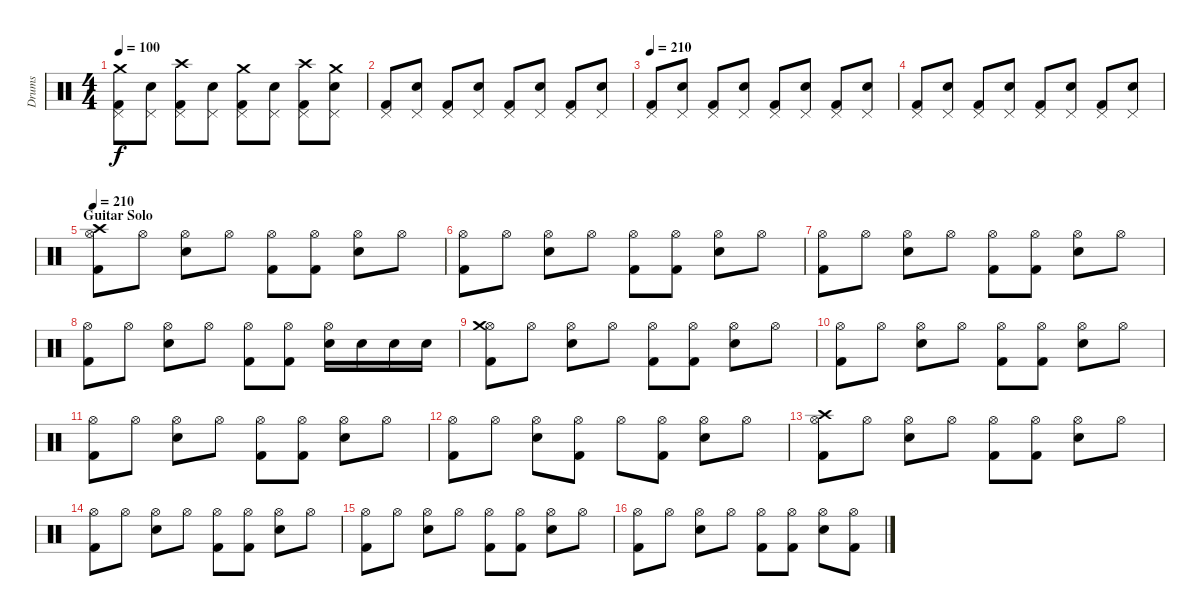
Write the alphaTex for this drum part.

\track ("Drums" "Drums") {instrument percussion}
\staff {score}
\articulation defaults
\ts (4 4)
\tempo 100
\clef neutral
\ks c
("Crash medium (hit)" "Pedal Hi-Hat (hit)" "Kick (hit) 2").8{dy f} ("Pedal Hi-Hat (hit)" "Electric Snare (hit)").8 ("Crash high (hit)" "Pedal Hi-Hat (hit)" "Kick (hit) 2").8 ("Pedal Hi-Hat (hit)" "Electric Snare (hit)").8 ("Crash medium (hit)" "Pedal Hi-Hat (hit)" "Kick (hit) 2").8 ("Pedal Hi-Hat (hit)" "Electric Snare (hit)").8 ("Crash high (hit)" "Pedal Hi-Hat (hit)" "Kick (hit) 2").8 ("Crash medium (hit)" "Pedal Hi-Hat (hit)" "Electric Snare (hit)").8 |
("Pedal Hi-Hat (hit)" "Kick (hit) 2").8 ("Pedal Hi-Hat (hit)" "Electric Snare (hit)").8 ("Pedal Hi-Hat (hit)" "Kick (hit) 2").8 ("Pedal Hi-Hat (hit)" "Electric Snare (hit)").8 ("Pedal Hi-Hat (hit)" "Kick (hit) 2").8 ("Pedal Hi-Hat (hit)" "Electric Snare (hit)").8 ("Pedal Hi-Hat (hit)" "Kick (hit) 2").8 ("Pedal Hi-Hat (hit)" "Electric Snare (hit)").8 |
\tempo 210
("Pedal Hi-Hat (hit)" "Kick (hit) 2").8 ("Pedal Hi-Hat (hit)" "Electric Snare (hit)").8 ("Pedal Hi-Hat (hit)" "Kick (hit) 2").8 ("Pedal Hi-Hat (hit)" "Electric Snare (hit)").8 ("Pedal Hi-Hat (hit)" "Kick (hit) 2").8 ("Pedal Hi-Hat (hit)" "Electric Snare (hit)").8 ("Pedal Hi-Hat (hit)" "Kick (hit) 2").8 ("Pedal Hi-Hat (hit)" "Electric Snare (hit)").8 |
("Pedal Hi-Hat (hit)" "Kick (hit) 2").8 ("Pedal Hi-Hat (hit)" "Electric Snare (hit)").8 ("Pedal Hi-Hat (hit)" "Kick (hit) 2").8 ("Pedal Hi-Hat (hit)" "Electric Snare (hit)").8 ("Pedal Hi-Hat (hit)" "Kick (hit) 2").8 ("Pedal Hi-Hat (hit)" "Electric Snare (hit)").8 ("Pedal Hi-Hat (hit)" "Kick (hit) 2").8 ("Pedal Hi-Hat (hit)" "Electric Snare (hit)").8 |
\section ("" "Guitar Solo")
\tempo 210
("Hi-Hat (open)" "Crash high (hit)" "Kick (hit) 2").8 "Hi-Hat (open)".8 ("Hi-Hat (open)" "Electric Snare (hit)").8 "Hi-Hat (open)".8 ("Hi-Hat (open)" "Kick (hit) 2").8 ("Hi-Hat (open)" "Kick (hit) 2").8 ("Hi-Hat (open)" "Electric Snare (hit)").8 "Hi-Hat (open)".8 |
("Hi-Hat (open)" "Kick (hit) 2").8 "Hi-Hat (open)".8 ("Hi-Hat (open)" "Electric Snare (hit)").8 "Hi-Hat (open)".8 ("Hi-Hat (open)" "Kick (hit) 2").8 ("Hi-Hat (open)" "Kick (hit) 2").8 ("Hi-Hat (open)" "Electric Snare (hit)").8 "Hi-Hat (open)".8 |
("Hi-Hat (open)" "Kick (hit) 2").8 "Hi-Hat (open)".8 ("Hi-Hat (open)" "Electric Snare (hit)").8 "Hi-Hat (open)".8 ("Hi-Hat (open)" "Kick (hit) 2").8 ("Hi-Hat (open)" "Kick (hit) 2").8 ("Hi-Hat (open)" "Electric Snare (hit)").8 "Hi-Hat (open)".8 |
("Hi-Hat (open)" "Kick (hit) 2").8 "Hi-Hat (open)".8 ("Hi-Hat (open)" "Electric Snare (hit)").8 "Hi-Hat (open)".8 ("Hi-Hat (open)" "Kick (hit) 2").8 ("Hi-Hat (open)" "Kick (hit) 2").8 ("Hi-Hat (open)" "Electric Snare (hit)").16 "Electric Snare (hit)".16 "Electric Snare (hit)".16 "Electric Snare (hit)".16 |
("Hi-Hat (open)" "Crash medium (hit)" "Kick (hit) 2").8 "Hi-Hat (open)".8 ("Hi-Hat (open)" "Electric Snare (hit)").8 "Hi-Hat (open)".8 ("Hi-Hat (open)" "Kick (hit) 2").8 ("Hi-Hat (open)" "Kick (hit) 2").8 ("Hi-Hat (open)" "Electric Snare (hit)").8 "Hi-Hat (open)".8 |
("Hi-Hat (open)" "Kick (hit) 2").8 "Hi-Hat (open)".8 ("Hi-Hat (open)" "Electric Snare (hit)").8 "Hi-Hat (open)".8 ("Hi-Hat (open)" "Kick (hit) 2").8 ("Hi-Hat (open)" "Kick (hit) 2").8 ("Hi-Hat (open)" "Electric Snare (hit)").8 "Hi-Hat (open)".8 |
("Hi-Hat (open)" "Kick (hit) 2").8 "Hi-Hat (open)".8 ("Hi-Hat (open)" "Electric Snare (hit)").8 "Hi-Hat (open)".8 ("Hi-Hat (open)" "Kick (hit) 2").8 ("Hi-Hat (open)" "Kick (hit) 2").8 ("Hi-Hat (open)" "Electric Snare (hit)").8 "Hi-Hat (open)".8 |
("Hi-Hat (open)" "Kick (hit) 2").8 "Hi-Hat (open)".8 ("Hi-Hat (open)" "Electric Snare (hit)").8 ("Hi-Hat (open)" "Kick (hit) 2").8 "Hi-Hat (open)".8 ("Hi-Hat (open)" "Kick (hit) 2").8 ("Hi-Hat (open)" "Electric Snare (hit)").8 "Hi-Hat (open)".8 |
("Hi-Hat (open)" "Crash high (hit)" "Kick (hit) 2").8 "Hi-Hat (open)".8 ("Hi-Hat (open)" "Electric Snare (hit)").8 "Hi-Hat (open)".8 ("Hi-Hat (open)" "Kick (hit) 2").8 ("Hi-Hat (open)" "Kick (hit) 2").8 ("Hi-Hat (open)" "Electric Snare (hit)").8 "Hi-Hat (open)".8 |
("Hi-Hat (open)" "Kick (hit) 2").8 "Hi-Hat (open)".8 ("Hi-Hat (open)" "Electric Snare (hit)").8 "Hi-Hat (open)".8 ("Hi-Hat (open)" "Kick (hit) 2").8 ("Hi-Hat (open)" "Kick (hit) 2").8 ("Hi-Hat (open)" "Electric Snare (hit)").8 "Hi-Hat (open)".8 |
("Hi-Hat (open)" "Kick (hit) 2").8 "Hi-Hat (open)".8 ("Hi-Hat (open)" "Electric Snare (hit)").8 "Hi-Hat (open)".8 ("Hi-Hat (open)" "Kick (hit) 2").8 ("Hi-Hat (open)" "Kick (hit) 2").8 ("Hi-Hat (open)" "Electric Snare (hit)").8 "Hi-Hat (open)".8 |
("Hi-Hat (open)" "Kick (hit) 2").8 "Hi-Hat (open)".8 ("Hi-Hat (open)" "Electric Snare (hit)").8 "Hi-Hat (open)".8 ("Hi-Hat (open)" "Kick (hit) 2").8 ("Hi-Hat (open)" "Kick (hit) 2").8 ("Hi-Hat (open)" "Electric Snare (hit)").8 ("Hi-Hat (open)" "Kick (hit) 2").8
